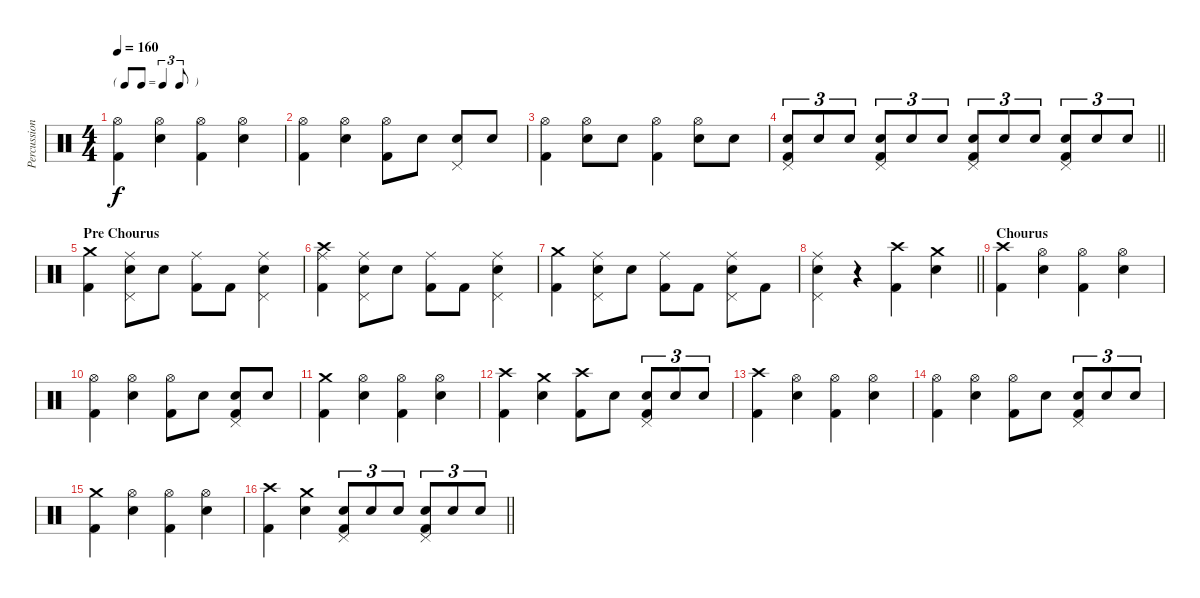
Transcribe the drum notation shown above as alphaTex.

\track ("Percussion" "Percussion") {instrument percussion}
\staff {score}
\articulation defaults
\ts (4 4)
\tf triplet8th
\tempo 160
\clef neutral
\ks c
("Hi-Hat (open)" "Kick (hit) 2").4{dy f} ("Hi-Hat (open)" "Snare (hit) 2").4 ("Hi-Hat (open)" "Kick (hit) 2").4 ("Hi-Hat (open)" "Snare (hit) 2").4 |
("Hi-Hat (open)" "Kick (hit) 2").4 ("Hi-Hat (open)" "Snare (hit) 2").4 ("Hi-Hat (open)" "Kick (hit) 2").8 "Snare (hit) 2".8 ("Snare (hit) 2" "Pedal Hi-Hat (hit)").8 "Snare (hit) 2".8 |
("Hi-Hat (open)" "Kick (hit) 2").4 ("Hi-Hat (open)" "Snare (hit) 2").8 "Snare (hit) 2".8 ("Hi-Hat (open)" "Kick (hit) 2").4 ("Hi-Hat (open)" "Snare (hit) 2").8 "Snare (hit) 2".8 |
\barLineRight lightlight
("Snare (hit) 2" "Pedal Hi-Hat (hit)" "Kick (hit) 2").8{tu (3 2)} "Snare (hit) 2".8{tu (3 2)} "Snare (hit) 2".8{tu (3 2)} ("Snare (hit) 2" "Pedal Hi-Hat (hit)" "Kick (hit) 2").8{tu (3 2)} "Snare (hit) 2".8{tu (3 2)} "Snare (hit) 2".8{tu (3 2)} ("Snare (hit) 2" "Pedal Hi-Hat (hit)" "Kick (hit) 2").8{tu (3 2)} "Snare (hit) 2".8{tu (3 2)} "Snare (hit) 2".8{tu (3 2)} ("Snare (hit) 2" "Pedal Hi-Hat (hit)" "Kick (hit) 2").8{tu (3 2)} "Snare (hit) 2".8{tu (3 2)} "Snare (hit) 2".8{tu (3 2)} |
\section ("" "Pre Chourus")
("Crash medium (hit)" "Kick (hit) 2").4 ("Ride (middle)" "Snare (hit) 2" "Pedal Hi-Hat (hit)").8 "Snare (hit) 2".8 ("Ride (middle)" "Kick (hit) 2").8 "Kick (hit) 2".8 ("Ride (middle)" "Snare (hit) 2" "Pedal Hi-Hat (hit)").4 |
("Crash high (hit)" "Ride (middle)" "Kick (hit) 2").4 ("Ride (middle)" "Snare (hit) 2" "Pedal Hi-Hat (hit)").8 "Snare (hit) 2".8 ("Ride (middle)" "Kick (hit) 2").8 "Kick (hit) 2".8 ("Ride (middle)" "Snare (hit) 2" "Pedal Hi-Hat (hit)").4 |
("Crash medium (hit)" "Kick (hit) 2").4 ("Ride (middle)" "Snare (hit) 2" "Pedal Hi-Hat (hit)").8 "Snare (hit) 2".8 ("Ride (middle)" "Kick (hit) 2").8 "Kick (hit) 2".8 ("Ride (middle)" "Snare (hit) 2" "Pedal Hi-Hat (hit)").8 "Kick (hit) 2".8 |
\barLineRight lightlight
("Ride (middle)" "Snare (hit) 2" "Pedal Hi-Hat (hit)").4 r.4 ("Crash high (hit)" "Kick (hit) 2").4 ("Crash medium (hit)" "Snare (hit) 2").4 |
\section ("" "Chourus")
("Crash high (hit)" "Kick (hit) 2").4 ("Hi-Hat (open)" "Snare (hit) 2").4 ("Hi-Hat (open)" "Kick (hit) 2").4 ("Hi-Hat (open)" "Snare (hit) 2").4 |
("Hi-Hat (open)" "Kick (hit) 2").4 ("Hi-Hat (open)" "Snare (hit) 2").4 ("Hi-Hat (open)" "Kick (hit) 2").8 "Snare (hit) 2".8 ("Snare (hit) 2" "Pedal Hi-Hat (hit)" "Kick (hit) 2").8 "Snare (hit) 2".8 |
("Crash medium (hit)" "Kick (hit) 2").4 ("Hi-Hat (open)" "Snare (hit) 2").4 ("Hi-Hat (open)" "Kick (hit) 2").4 ("Hi-Hat (open)" "Snare (hit) 2").4 |
("Crash high (hit)" "Kick (hit) 2").4 ("Crash medium (hit)" "Snare (hit) 2").4 ("Crash high (hit)" "Kick (hit) 2").8 "Snare (hit) 2".8 ("Snare (hit) 2" "Pedal Hi-Hat (hit)" "Kick (hit) 2").8{tu (3 2)} "Snare (hit) 2".8{tu (3 2)} "Snare (hit) 2".8{tu (3 2)} |
("Crash high (hit)" "Kick (hit) 2").4 ("Hi-Hat (open)" "Snare (hit) 2").4 ("Hi-Hat (open)" "Kick (hit) 2").4 ("Hi-Hat (open)" "Snare (hit) 2").4 |
("Hi-Hat (open)" "Kick (hit) 2").4 ("Hi-Hat (open)" "Snare (hit) 2").4 ("Hi-Hat (open)" "Kick (hit) 2").8 "Snare (hit) 2".8 ("Snare (hit) 2" "Pedal Hi-Hat (hit)" "Kick (hit) 2").8{tu (3 2)} "Snare (hit) 2".8{tu (3 2)} "Snare (hit) 2".8{tu (3 2)} |
("Crash medium (hit)" "Kick (hit) 2").4 ("Hi-Hat (open)" "Snare (hit) 2").4 ("Hi-Hat (open)" "Kick (hit) 2").4 ("Hi-Hat (open)" "Snare (hit) 2").4 |
\barLineRight lightlight
("Crash high (hit)" "Kick (hit) 2").4 ("Crash medium (hit)" "Snare (hit) 2").4 ("Snare (hit) 2" "Pedal Hi-Hat (hit)" "Kick (hit) 2").8{tu (3 2)} "Snare (hit) 2".8{tu (3 2)} "Snare (hit) 2".8{tu (3 2)} ("Snare (hit) 2" "Pedal Hi-Hat (hit)" "Kick (hit) 2").8{tu (3 2)} "Snare (hit) 2".8{tu (3 2)} "Snare (hit) 2".8{tu (3 2)}
